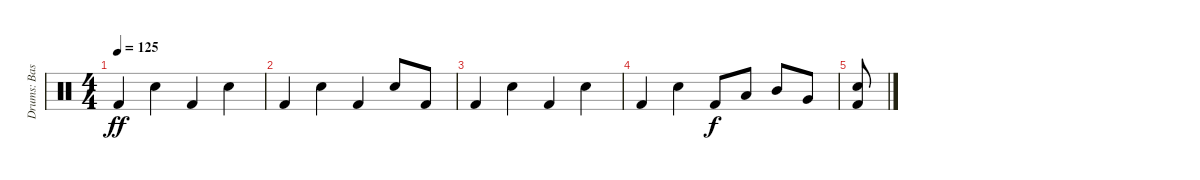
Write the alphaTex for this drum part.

\track ("Drums: Bass, Snare" "Drums: Bas") {instrument percussion}
\staff {score}
\articulation defaults
\ts (4 4)
\tempo 125
\clef neutral
\ks c "Kick (hit) 2".4{dy ff} "Electric Snare (hit)".4 "Kick (hit) 2".4 "Electric Snare (hit)".4
|
"Kick (hit) 2".4 "Electric Snare (hit)".4 "Kick (hit) 2".4 "Electric Snare (hit)".8 "Kick (hit) 2".8 |
"Kick (hit) 2".4 "Electric Snare (hit)".4 "Kick (hit) 2".4 "Electric Snare (hit)".4 |
"Kick (hit) 2".4 "Electric Snare (hit)".4 "Kick (hit) 2".8{dy f} "Low Tom (hit)".8 "Mid Tom (hit)".8 "Very Low Tom (hit)".8 |
("Kick (hit) 2" "Electric Snare (hit)").8
